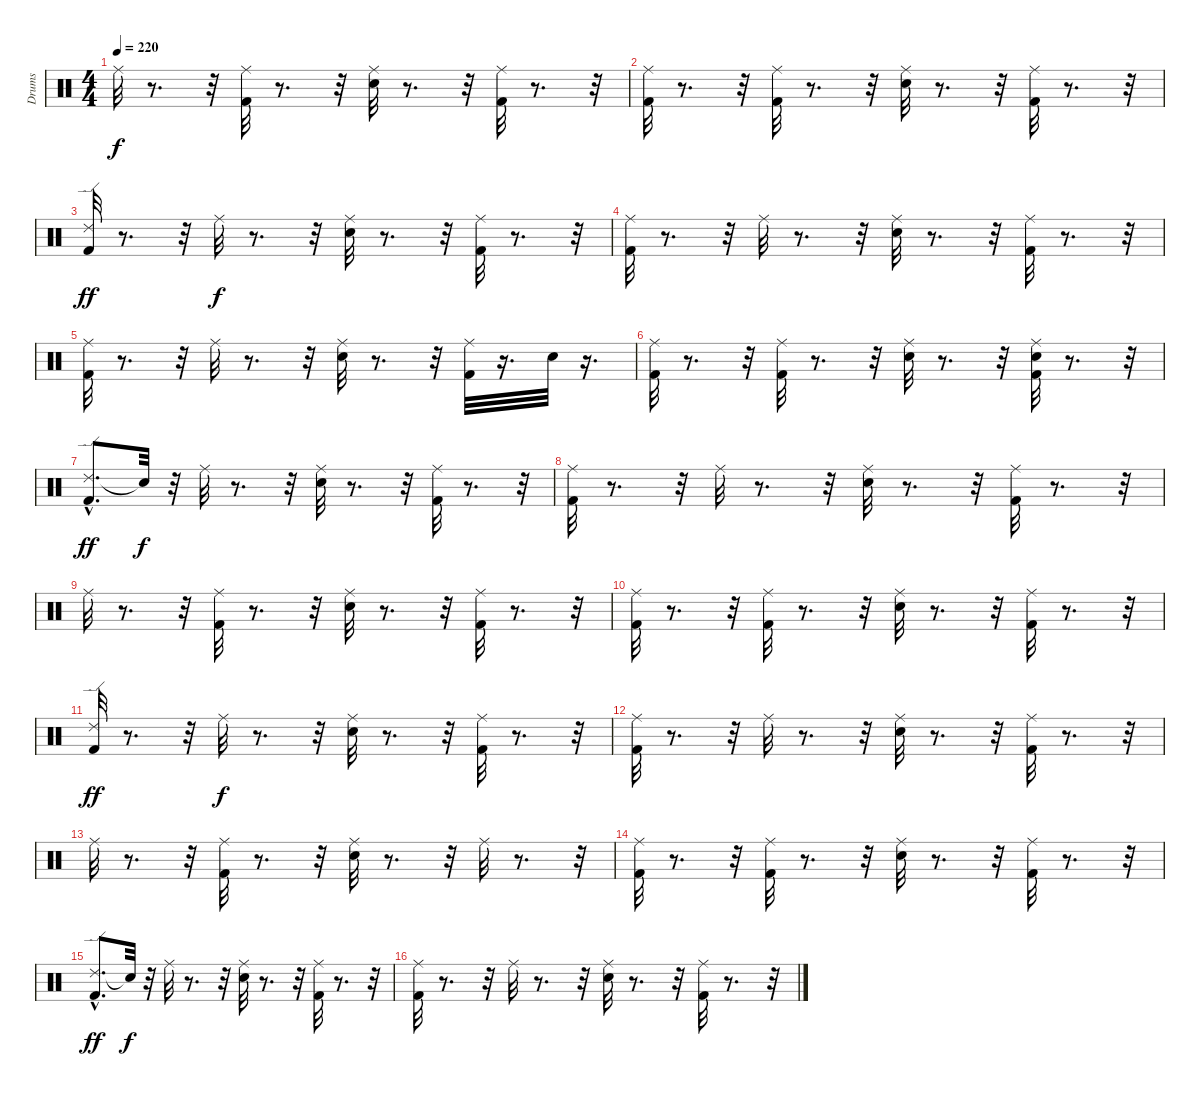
\track ("Drums" "Drums") {instrument percussion}
\staff {score}
\articulation defaults
\ts (4 4)
\tempo 220
\clef neutral
\ks c "Ride (middle)".32{dy f}
r.8{d} r.32 ("Kick (hit) 2" "Ride (middle)").32 r.8{d} r.32 ("Ride (middle)" "Snare (hit) 2").32 r.8{d} r.32 ("Kick (hit) 2" "Ride (middle)").32 r.8{d} r.32 |
("Kick (hit) 2" "Ride (middle)").32 r.8{d} r.32 ("Ride (middle)" "Kick (hit) 2").32 r.8{d} r.32 ("Ride (middle)" "Snare (hit) 2").32 r.8{d} r.32 ("Ride (middle)" "Kick (hit) 2").32 r.8{d} r.32 |
("Ride (edge) 2" "Kick (hit) 2").32{dy ff} r.8{d} r.32 "Ride (middle)".32{dy f} r.8{d} r.32 ("Ride (middle)" "Snare (hit) 2").32 r.8{d} r.32 ("Ride (middle)" "Kick (hit) 2").32 r.8{d} r.32 |
("Ride (middle)" "Kick (hit) 2").32 r.8{d} r.32 "Ride (middle)".32 r.8{d} r.32 ("Ride (middle)" "Snare (hit) 2").32 r.8{d} r.32 ("Kick (hit) 2" "Ride (middle)").32 r.8{d} r.32 |
("Ride (middle)" "Kick (hit) 2").32 r.8{d} r.32 "Ride (middle)".32 r.8{d} r.32 ("Ride (middle)" "Snare (hit) 2").32 r.8{d} r.32 ("Ride (middle)" "Kick (hit) 2").32 r.16{d} "Snare (hit) 2".32 r.16{d} |
("Ride (middle)" "Kick (hit) 2").32 r.8{d} r.32 ("Kick (hit) 2" "Ride (middle)").32 r.8{d} r.32 ("Ride (middle)" "Snare (hit) 2").32 r.8{d} r.32 ("Snare (hit) 2" "Ride (middle)" "Kick (hit) 2").32 r.8{d} r.32 |
("Ride (edge) 2"{hac} "Kick (hit) 2").8{d dy ff} "Snare (hit)"{t}.32{dy f} r.32 "Ride (middle)".32 r.8{d} r.32 ("Snare (hit) 2" "Ride (middle)").32 r.8{d} r.32 ("Kick (hit) 2" "Ride (middle)").32 r.8{d} r.32 |
("Kick (hit) 2" "Ride (middle)").32 r.8{d} r.32 "Ride (middle)".32 r.8{d} r.32 ("Snare (hit) 2" "Ride (middle)").32 r.8{d} r.32 ("Kick (hit) 2" "Ride (middle)").32 r.8{d} r.32 |
"Ride (middle)".32 r.8{d} r.32 ("Kick (hit) 2" "Ride (middle)").32 r.8{d} r.32 ("Ride (middle)" "Snare (hit) 2").32 r.8{d} r.32 ("Kick (hit) 2" "Ride (middle)").32 r.8{d} r.32 |
("Kick (hit) 2" "Ride (middle)").32 r.8{d} r.32 ("Ride (middle)" "Kick (hit) 2").32 r.8{d} r.32 ("Ride (middle)" "Snare (hit) 2").32 r.8{d} r.32 ("Ride (middle)" "Kick (hit) 2").32 r.8{d} r.32 |
("Ride (edge) 2" "Kick (hit) 2").32{dy ff} r.8{d} r.32 "Ride (middle)".32{dy f} r.8{d} r.32 ("Ride (middle)" "Snare (hit) 2").32 r.8{d} r.32 ("Ride (middle)" "Kick (hit) 2").32 r.8{d} r.32 |
("Ride (middle)" "Kick (hit) 2").32 r.8{d} r.32 "Ride (middle)".32 r.8{d} r.32 ("Ride (middle)" "Snare (hit) 2").32 r.8{d} r.32 ("Kick (hit) 2" "Ride (middle)").32 r.8{d} r.32 |
"Ride (middle)".32 r.8{d} r.32 ("Kick (hit) 2" "Ride (middle)").32 r.8{d} r.32 ("Ride (middle)" "Snare (hit) 2").32 r.8{d} r.32 "Ride (middle)".32 r.8{d} r.32 |
("Ride (middle)" "Kick (hit) 2").32 r.8{d} r.32 ("Ride (middle)" "Kick (hit) 2").32 r.8{d} r.32 ("Ride (middle)" "Snare (hit) 2").32 r.8{d} r.32 ("Ride (middle)" "Kick (hit) 2").32 r.8{d} r.32 |
("Ride (edge) 2"{hac} "Kick (hit) 2").8{d dy ff} "Snare (hit)"{t}.32{dy f} r.32 "Ride (middle)".32 r.8{d} r.32 ("Snare (hit) 2" "Ride (middle)").32 r.8{d} r.32 ("Kick (hit) 2" "Ride (middle)").32 r.8{d} r.32 |
("Kick (hit) 2" "Ride (middle)").32 r.8{d} r.32 "Ride (middle)".32 r.8{d} r.32 ("Snare (hit) 2" "Ride (middle)").32 r.8{d} r.32 ("Kick (hit) 2" "Ride (middle)").32 r.8{d} r.32
